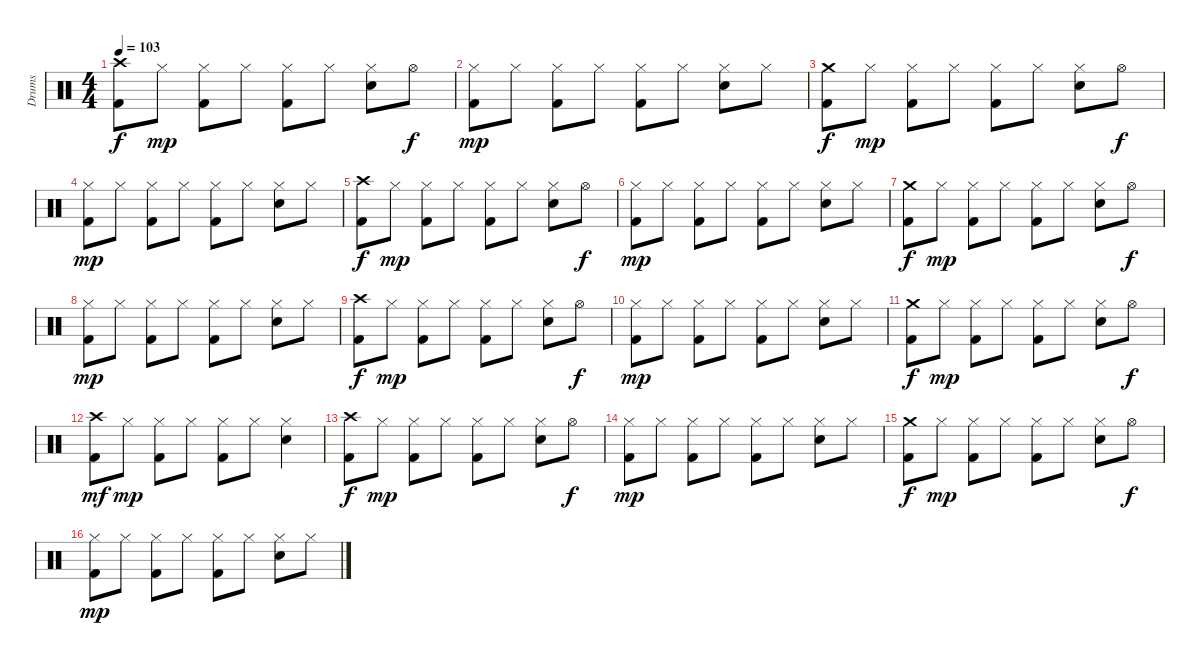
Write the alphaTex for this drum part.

\track ("Drums" "Drums") {instrument percussion}
\staff {score}
\articulation defaults
\ts (4 4)
\tempo 103
\clef neutral
\ks c
("Crash high (hit)" "Kick (hit) 2").8{dy f} "Hi-Hat (closed)".8{dy mp} ("Hi-Hat (closed)" "Kick (hit) 2").8 "Hi-Hat (closed)".8 ("Hi-Hat (closed)" "Kick (hit) 2").8 "Hi-Hat (closed)".8 ("Hi-Hat (closed)" "Snare (hit) 2").8 "Hi-Hat (open)".8{dy f} |
("Hi-Hat (closed)" "Kick (hit) 2").8{dy mp} "Hi-Hat (closed)".8 ("Hi-Hat (closed)" "Kick (hit) 2").8 "Hi-Hat (closed)".8 ("Hi-Hat (closed)" "Kick (hit) 2").8 "Hi-Hat (closed)".8 ("Hi-Hat (closed)" "Snare (hit) 2").8 "Hi-Hat (closed)".8 |
("Crash medium (hit)" "Kick (hit) 2").8{dy f} "Hi-Hat (closed)".8{dy mp} ("Hi-Hat (closed)" "Kick (hit) 2").8 "Hi-Hat (closed)".8 ("Hi-Hat (closed)" "Kick (hit) 2").8 "Hi-Hat (closed)".8 ("Hi-Hat (closed)" "Snare (hit) 2").8 "Hi-Hat (open)".8{dy f} |
("Hi-Hat (closed)" "Kick (hit) 2").8{dy mp} "Hi-Hat (closed)".8 ("Hi-Hat (closed)" "Kick (hit) 2").8 "Hi-Hat (closed)".8 ("Hi-Hat (closed)" "Kick (hit) 2").8 "Hi-Hat (closed)".8 ("Hi-Hat (closed)" "Snare (hit) 2").8 "Hi-Hat (closed)".8 |
("Crash high (hit)" "Kick (hit) 2").8{dy f} "Hi-Hat (closed)".8{dy mp} ("Hi-Hat (closed)" "Kick (hit) 2").8 "Hi-Hat (closed)".8 ("Hi-Hat (closed)" "Kick (hit) 2").8 "Hi-Hat (closed)".8 ("Hi-Hat (closed)" "Snare (hit) 2").8 "Hi-Hat (open)".8{dy f} |
("Hi-Hat (closed)" "Kick (hit) 2").8{dy mp} "Hi-Hat (closed)".8 ("Hi-Hat (closed)" "Kick (hit) 2").8 "Hi-Hat (closed)".8 ("Hi-Hat (closed)" "Kick (hit) 2").8 "Hi-Hat (closed)".8 ("Hi-Hat (closed)" "Snare (hit) 2").8 "Hi-Hat (closed)".8 |
("Crash medium (hit)" "Kick (hit) 2").8{dy f} "Hi-Hat (closed)".8{dy mp} ("Hi-Hat (closed)" "Kick (hit) 2").8 "Hi-Hat (closed)".8 ("Hi-Hat (closed)" "Kick (hit) 2").8 "Hi-Hat (closed)".8 ("Hi-Hat (closed)" "Snare (hit) 2").8 "Hi-Hat (open)".8{dy f} |
("Hi-Hat (closed)" "Kick (hit) 2").8{dy mp} "Hi-Hat (closed)".8 ("Hi-Hat (closed)" "Kick (hit) 2").8 "Hi-Hat (closed)".8 ("Hi-Hat (closed)" "Kick (hit) 2").8 "Hi-Hat (closed)".8 ("Hi-Hat (closed)" "Snare (hit) 2").8 "Hi-Hat (closed)".8 |
("Crash high (hit)" "Kick (hit) 2").8{dy f} "Hi-Hat (closed)".8{dy mp} ("Hi-Hat (closed)" "Kick (hit) 2").8 "Hi-Hat (closed)".8 ("Hi-Hat (closed)" "Kick (hit) 2").8 "Hi-Hat (closed)".8 ("Hi-Hat (closed)" "Snare (hit) 2").8 "Hi-Hat (open)".8{dy f} |
("Hi-Hat (closed)" "Kick (hit) 2").8{dy mp} "Hi-Hat (closed)".8 ("Hi-Hat (closed)" "Kick (hit) 2").8 "Hi-Hat (closed)".8 ("Hi-Hat (closed)" "Kick (hit) 2").8 "Hi-Hat (closed)".8 ("Hi-Hat (closed)" "Snare (hit) 2").8 "Hi-Hat (closed)".8 |
("Crash medium (hit)" "Kick (hit) 2").8{dy f} "Hi-Hat (closed)".8{dy mp} ("Hi-Hat (closed)" "Kick (hit) 2").8 "Hi-Hat (closed)".8 ("Hi-Hat (closed)" "Kick (hit) 2").8 "Hi-Hat (closed)".8 ("Hi-Hat (closed)" "Snare (hit) 2").8 "Hi-Hat (open)".8{dy f} |
("Crash high (hit)" "Kick (hit) 2").8{dy mf} "Hi-Hat (closed)".8{dy mp} ("Hi-Hat (closed)" "Kick (hit) 2").8 "Hi-Hat (closed)".8 ("Hi-Hat (closed)" "Kick (hit) 2").8 "Hi-Hat (closed)".8 ("Hi-Hat (closed)" "Snare (hit) 2").4 |
("Crash high (hit)" "Kick (hit) 2").8{dy f} "Hi-Hat (closed)".8{dy mp} ("Hi-Hat (closed)" "Kick (hit) 2").8 "Hi-Hat (closed)".8 ("Hi-Hat (closed)" "Kick (hit) 2").8 "Hi-Hat (closed)".8 ("Hi-Hat (closed)" "Snare (hit) 2").8 "Hi-Hat (open)".8{dy f} |
("Hi-Hat (closed)" "Kick (hit) 2").8{dy mp} "Hi-Hat (closed)".8 ("Hi-Hat (closed)" "Kick (hit) 2").8 "Hi-Hat (closed)".8 ("Hi-Hat (closed)" "Kick (hit) 2").8 "Hi-Hat (closed)".8 ("Hi-Hat (closed)" "Snare (hit) 2").8 "Hi-Hat (closed)".8 |
("Crash medium (hit)" "Kick (hit) 2").8{dy f} "Hi-Hat (closed)".8{dy mp} ("Hi-Hat (closed)" "Kick (hit) 2").8 "Hi-Hat (closed)".8 ("Hi-Hat (closed)" "Kick (hit) 2").8 "Hi-Hat (closed)".8 ("Hi-Hat (closed)" "Snare (hit) 2").8 "Hi-Hat (open)".8{dy f} |
("Hi-Hat (closed)" "Kick (hit) 2").8{dy mp} "Hi-Hat (closed)".8 ("Hi-Hat (closed)" "Kick (hit) 2").8 "Hi-Hat (closed)".8 ("Hi-Hat (closed)" "Kick (hit) 2").8 "Hi-Hat (closed)".8 ("Hi-Hat (closed)" "Snare (hit) 2").8 "Hi-Hat (closed)".8
